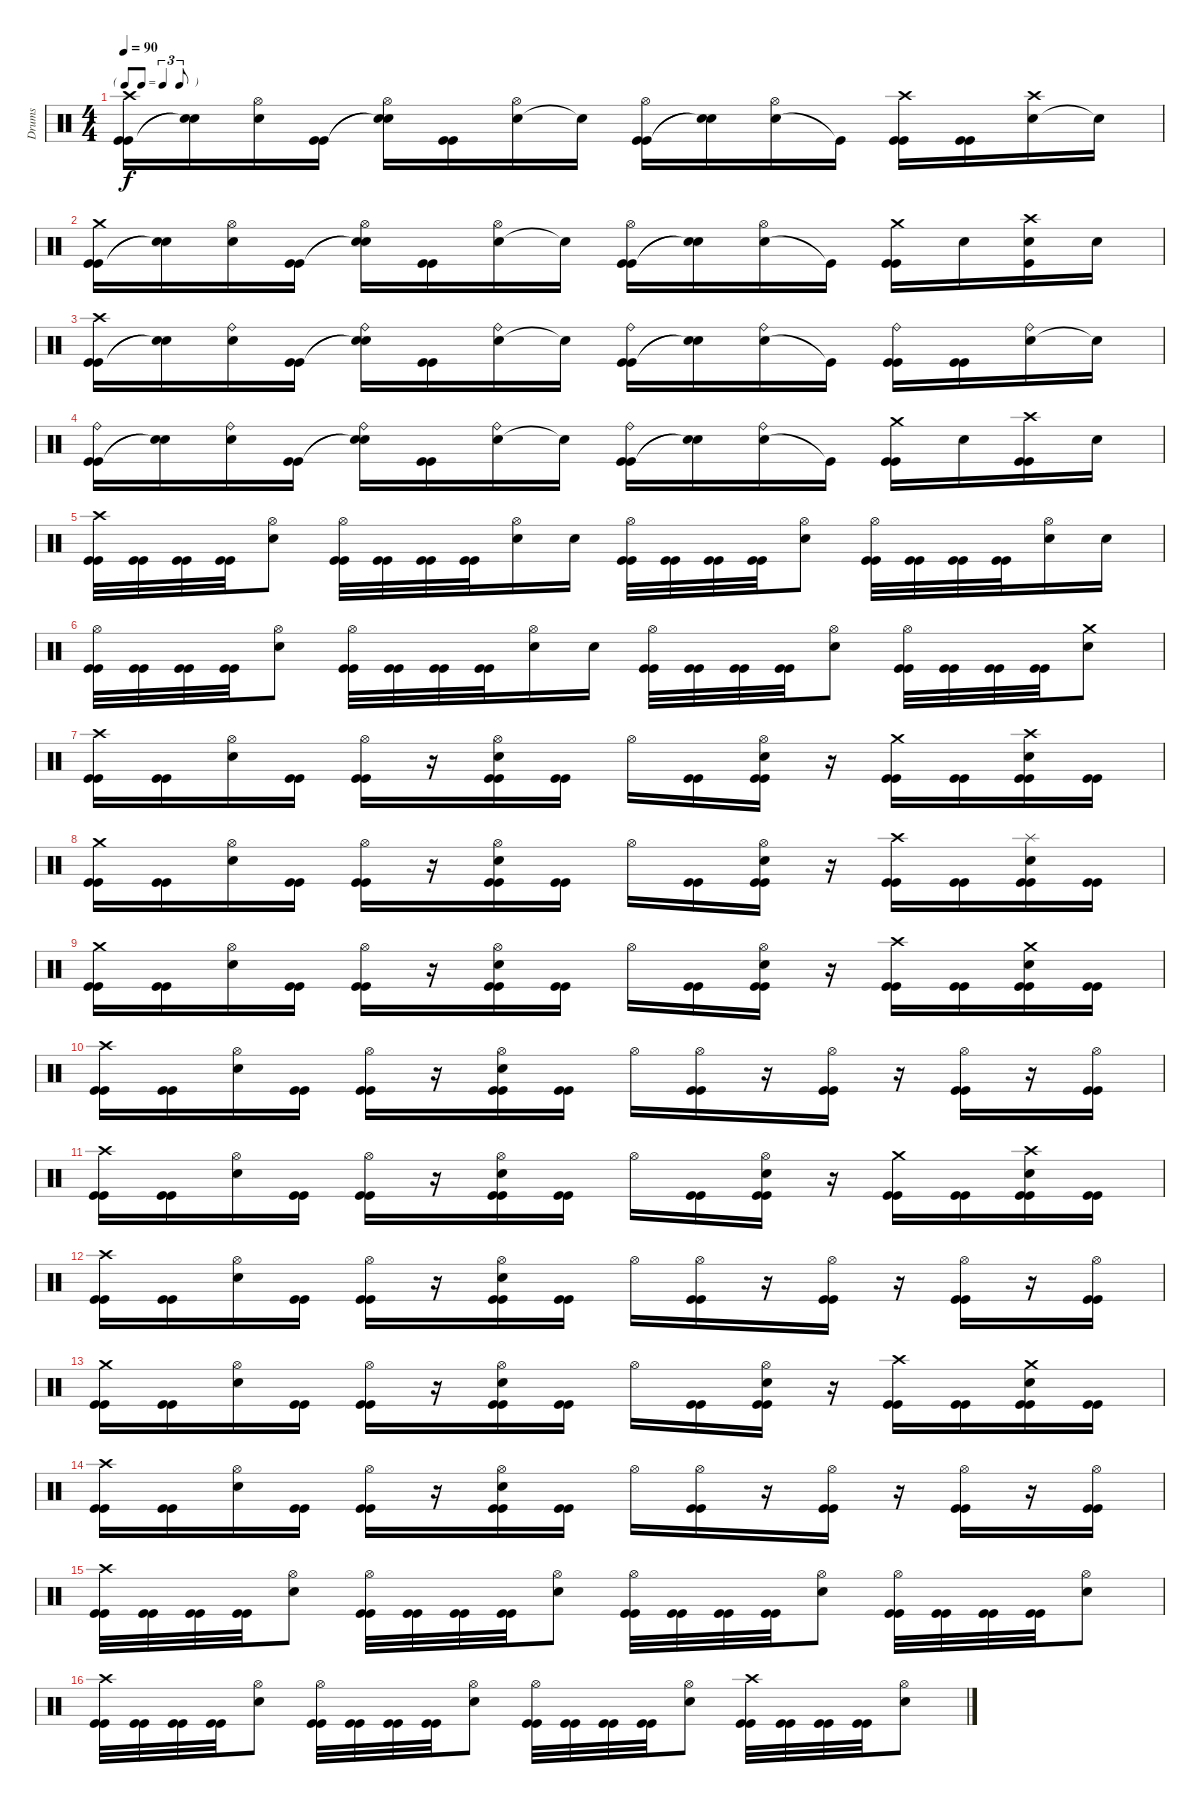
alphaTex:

\track ("Drums" "Drums") {instrument percussion}
\staff {score}
\articulation defaults
\ts (4 4)
\tf triplet8th
\tempo 90
\clef neutral
\ks c
("Kick (hit)" "Kick (hit)" "Crash high (hit)").16{dy f} ("Snare (hit) 2"{t} "Snare (hit)"{t}).16 ("Snare (hit) 2" "Hi-Hat (open)").16 ("Kick (hit)" "Kick (hit)").16 ("Snare (hit)"{t} "Snare (hit) 2"{t} "Hi-Hat (open)").16 ("Kick (hit)" "Kick (hit)").16 ("Snare (hit) 2" "Hi-Hat (open)").16 "Snare (hit)"{t}.16 ("Kick (hit)" "Kick (hit)" "Hi-Hat (open)").16 ("Snare (hit) 2"{t} "Snare (hit)"{t}).16 ("Snare (hit) 2" "Hi-Hat (open)").16 "Kick (hit)"{t}.16 ("Kick (hit)" "Kick (hit)" "Crash high (hit)").16 ("Kick (hit)" "Kick (hit)").16 ("Snare (hit) 2" "Crash high (hit)").16 "Snare (hit)"{t}.16 |
("Kick (hit)" "Kick (hit)" "Crash medium (hit)").16 ("Snare (hit) 2"{t} "Snare (hit)"{t}).16 ("Snare (hit) 2" "Hi-Hat (open)").16 ("Kick (hit)" "Kick (hit)").16 ("Snare (hit)"{t} "Snare (hit) 2"{t} "Hi-Hat (open)").16 ("Kick (hit)" "Kick (hit)").16 ("Snare (hit) 2" "Hi-Hat (open)").16 "Snare (hit)"{t}.16 ("Kick (hit)" "Kick (hit)" "Hi-Hat (open)").16 ("Snare (hit) 2"{t} "Snare (hit)"{t}).16 ("Snare (hit) 2" "Hi-Hat (open)").16 "Kick (hit)"{t}.16 ("Kick (hit)" "Kick (hit)" "Crash medium (hit)").16 "Snare (hit) 2".16 ("Kick (hit)" "Snare (hit) 2" "Crash high (hit)").16 "Snare (hit) 2".16 |
("Kick (hit)" "Kick (hit)" "Crash high (hit)").16 ("Snare (hit) 2"{t} "Snare (hit)"{t}).16 ("Snare (hit) 2" "Ride (bell)").16 ("Kick (hit)" "Kick (hit)").16 ("Snare (hit)"{t} "Snare (hit) 2"{t} "Ride (bell)").16 ("Kick (hit)" "Kick (hit)").16 ("Snare (hit) 2" "Ride (bell)").16 "Snare (hit)"{t}.16 ("Kick (hit)" "Kick (hit)" "Ride (bell)").16 ("Snare (hit) 2"{t} "Snare (hit)"{t}).16 ("Snare (hit) 2" "Ride (bell)").16 "Kick (hit)"{t}.16 ("Kick (hit)" "Kick (hit)" "Ride (bell)").16 ("Kick (hit)" "Kick (hit)").16 ("Snare (hit) 2" "Ride (bell)").16 "Snare (hit)"{t}.16 |
("Kick (hit)" "Kick (hit)" "Ride (bell)").16 ("Snare (hit) 2"{t} "Snare (hit)"{t}).16 ("Snare (hit) 2" "Ride (bell)").16 ("Kick (hit)" "Kick (hit)").16 ("Snare (hit)"{t} "Snare (hit) 2"{t} "Ride (bell)").16 ("Kick (hit)" "Kick (hit)").16 ("Snare (hit) 2" "Ride (bell)").16 "Snare (hit)"{t}.16 ("Kick (hit)" "Kick (hit)" "Ride (bell)").16 ("Snare (hit) 2"{t} "Snare (hit)"{t}).16 ("Snare (hit) 2" "Ride (bell)").16 "Kick (hit)"{t}.16 ("Kick (hit)" "Kick (hit)" "Crash medium (hit)").16 "Snare (hit) 2".16 ("Kick (hit)" "Kick (hit)" "Crash high (hit)").16 "Snare (hit) 2".16 |
("Kick (hit)" "Kick (hit)" "Crash high (hit)").32 ("Kick (hit)" "Kick (hit)").32 ("Kick (hit)" "Kick (hit)").32 ("Kick (hit)" "Kick (hit)").32 ("Snare (hit) 2" "Hi-Hat (open)").8 ("Kick (hit)" "Kick (hit)" "Hi-Hat (open)").32 ("Kick (hit)" "Kick (hit)").32 ("Kick (hit)" "Kick (hit)").32 ("Kick (hit)" "Kick (hit)").32 ("Snare (hit) 2" "Hi-Hat (open)").16 "Snare (hit) 2".16 ("Kick (hit)" "Kick (hit)" "Hi-Hat (open)").32 ("Kick (hit)" "Kick (hit)").32 ("Kick (hit)" "Kick (hit)").32 ("Kick (hit)" "Kick (hit)").32 ("Snare (hit) 2" "Hi-Hat (open)").8 ("Kick (hit)" "Kick (hit)" "Hi-Hat (open)").32 ("Kick (hit)" "Kick (hit)").32 ("Kick (hit)" "Kick (hit)").32 ("Kick (hit)" "Kick (hit)").32 ("Snare (hit) 2" "Hi-Hat (open)").16 "Snare (hit) 2".16 |
("Kick (hit)" "Kick (hit)" "Hi-Hat (open)").32 ("Kick (hit)" "Kick (hit)").32 ("Kick (hit)" "Kick (hit)").32 ("Kick (hit)" "Kick (hit)").32 ("Snare (hit) 2" "Hi-Hat (open)").8 ("Kick (hit)" "Kick (hit)" "Hi-Hat (open)").32 ("Kick (hit)" "Kick (hit)").32 ("Kick (hit)" "Kick (hit)").32 ("Kick (hit)" "Kick (hit)").32 ("Snare (hit) 2" "Hi-Hat (open)").16 "Snare (hit) 2".16 ("Kick (hit)" "Kick (hit)" "Hi-Hat (open)").32 ("Kick (hit)" "Kick (hit)").32 ("Kick (hit)" "Kick (hit)").32 ("Kick (hit)" "Kick (hit)").32 ("Snare (hit) 2" "Hi-Hat (open)").8 ("Kick (hit)" "Kick (hit)" "Hi-Hat (open)").32 ("Kick (hit)" "Kick (hit)").32 ("Kick (hit)" "Kick (hit)").32 ("Kick (hit)" "Kick (hit)").32 ("Snare (hit) 2" "Crash medium (hit)").8 |
("Kick (hit)" "Kick (hit)" "Crash high (hit)").16 ("Kick (hit)" "Kick (hit)").16 ("Snare (hit) 2" "Hi-Hat (open)").16 ("Kick (hit)" "Kick (hit)").16 ("Kick (hit)" "Kick (hit)" "Hi-Hat (open)").16 r.16 ("Kick (hit)" "Kick (hit)" "Snare (hit) 2" "Hi-Hat (open)").16 ("Kick (hit)" "Kick (hit)").16 "Hi-Hat (open)".16 ("Kick (hit)" "Kick (hit)").16 ("Kick (hit)" "Kick (hit)" "Snare (hit) 2" "Hi-Hat (open)").16 r.16 ("Kick (hit)" "Kick (hit)" "Crash medium (hit)").16 ("Kick (hit)" "Kick (hit)").16 ("Kick (hit)" "Kick (hit)" "Snare (hit) 2" "Crash high (hit)").16 ("Kick (hit)" "Kick (hit)").16 |
("Kick (hit)" "Kick (hit)" "Crash medium (hit)").16 ("Kick (hit)" "Kick (hit)").16 ("Snare (hit) 2" "Hi-Hat (open)").16 ("Kick (hit)" "Kick (hit)").16 ("Kick (hit)" "Kick (hit)" "Hi-Hat (open)").16 r.16 ("Kick (hit)" "Kick (hit)" "Snare (hit) 2" "Hi-Hat (open)").16 ("Kick (hit)" "Kick (hit)").16 "Hi-Hat (open)".16 ("Kick (hit)" "Kick (hit)").16 ("Kick (hit)" "Kick (hit)" "Snare (hit) 2" "Hi-Hat (open)").16 r.16 ("Kick (hit)" "Kick (hit)" "Crash high (hit)").16 ("Kick (hit)" "Kick (hit)").16 ("Kick (hit)" "Kick (hit)" "Snare (hit) 2" "Splash (hit)").16 ("Kick (hit)" "Kick (hit)").16 |
("Kick (hit)" "Kick (hit)" "Crash medium (hit)").16 ("Kick (hit)" "Kick (hit)").16 ("Snare (hit) 2" "Hi-Hat (open)").16 ("Kick (hit)" "Kick (hit)").16 ("Kick (hit)" "Kick (hit)" "Hi-Hat (open)").16 r.16 ("Kick (hit)" "Kick (hit)" "Snare (hit) 2" "Hi-Hat (open)").16 ("Kick (hit)" "Kick (hit)").16 "Hi-Hat (open)".16 ("Kick (hit)" "Kick (hit)").16 ("Kick (hit)" "Kick (hit)" "Snare (hit) 2" "Hi-Hat (open)").16 r.16 ("Kick (hit)" "Kick (hit)" "Crash high (hit)").16 ("Kick (hit)" "Kick (hit)").16 ("Kick (hit)" "Kick (hit)" "Snare (hit) 2" "Crash medium (hit)").16 ("Kick (hit)" "Kick (hit)").16 |
("Kick (hit)" "Kick (hit)" "Crash high (hit)").16 ("Kick (hit)" "Kick (hit)").16 ("Snare (hit) 2" "Hi-Hat (open)").16 ("Kick (hit)" "Kick (hit)").16 ("Kick (hit)" "Kick (hit)" "Hi-Hat (open)").16 r.16 ("Kick (hit)" "Kick (hit)" "Snare (hit) 2" "Hi-Hat (open)").16 ("Kick (hit)" "Kick (hit)").16 "Hi-Hat (open)".16 ("Kick (hit)" "Hi-Hat (open)" "Kick (hit)").16 r.16 ("Kick (hit)" "Hi-Hat (open)" "Kick (hit)").16 r.16 ("Kick (hit)" "Hi-Hat (open)" "Kick (hit)").16 r.16 ("Kick (hit)" "Hi-Hat (open)" "Kick (hit)").16 |
("Kick (hit)" "Kick (hit)" "Crash high (hit)").16 ("Kick (hit)" "Kick (hit)").16 ("Snare (hit) 2" "Hi-Hat (open)").16 ("Kick (hit)" "Kick (hit)").16 ("Kick (hit)" "Kick (hit)" "Hi-Hat (open)").16 r.16 ("Kick (hit)" "Kick (hit)" "Snare (hit) 2" "Hi-Hat (open)").16 ("Kick (hit)" "Kick (hit)").16 "Hi-Hat (open)".16 ("Kick (hit)" "Kick (hit)").16 ("Kick (hit)" "Kick (hit)" "Snare (hit) 2" "Hi-Hat (open)").16 r.16 ("Kick (hit)" "Kick (hit)" "Crash medium (hit)").16 ("Kick (hit)" "Kick (hit)").16 ("Kick (hit)" "Kick (hit)" "Snare (hit) 2" "Crash high (hit)").16 ("Kick (hit)" "Kick (hit)").16 |
("Kick (hit)" "Kick (hit)" "Crash high (hit)").16 ("Kick (hit)" "Kick (hit)").16 ("Snare (hit) 2" "Hi-Hat (open)").16 ("Kick (hit)" "Kick (hit)").16 ("Kick (hit)" "Kick (hit)" "Hi-Hat (open)").16 r.16 ("Kick (hit)" "Kick (hit)" "Snare (hit) 2" "Hi-Hat (open)").16 ("Kick (hit)" "Kick (hit)").16 "Hi-Hat (open)".16 ("Kick (hit)" "Hi-Hat (open)" "Kick (hit)").16 r.16 ("Kick (hit)" "Hi-Hat (open)" "Kick (hit)").16 r.16 ("Kick (hit)" "Hi-Hat (open)" "Kick (hit)").16 r.16 ("Kick (hit)" "Hi-Hat (open)" "Kick (hit)").16 |
("Kick (hit)" "Kick (hit)" "Crash medium (hit)").16 ("Kick (hit)" "Kick (hit)").16 ("Snare (hit) 2" "Hi-Hat (open)").16 ("Kick (hit)" "Kick (hit)").16 ("Kick (hit)" "Kick (hit)" "Hi-Hat (open)").16 r.16 ("Kick (hit)" "Kick (hit)" "Snare (hit) 2" "Hi-Hat (open)").16 ("Kick (hit)" "Kick (hit)").16 "Hi-Hat (open)".16 ("Kick (hit)" "Kick (hit)").16 ("Kick (hit)" "Kick (hit)" "Snare (hit) 2" "Hi-Hat (open)").16 r.16 ("Kick (hit)" "Kick (hit)" "Crash high (hit)").16 ("Kick (hit)" "Kick (hit)").16 ("Kick (hit)" "Kick (hit)" "Snare (hit) 2" "Crash medium (hit)").16 ("Kick (hit)" "Kick (hit)").16 |
("Kick (hit)" "Kick (hit)" "Crash high (hit)").16 ("Kick (hit)" "Kick (hit)").16 ("Snare (hit) 2" "Hi-Hat (open)").16 ("Kick (hit)" "Kick (hit)").16 ("Kick (hit)" "Kick (hit)" "Hi-Hat (open)").16 r.16 ("Kick (hit)" "Kick (hit)" "Snare (hit) 2" "Hi-Hat (open)").16 ("Kick (hit)" "Kick (hit)").16 "Hi-Hat (open)".16 ("Kick (hit)" "Hi-Hat (open)" "Kick (hit)").16 r.16 ("Kick (hit)" "Hi-Hat (open)" "Kick (hit)").16 r.16 ("Kick (hit)" "Hi-Hat (open)" "Kick (hit)").16 r.16 ("Kick (hit)" "Hi-Hat (open)" "Kick (hit)").16 |
("Kick (hit)" "Kick (hit)" "Crash high (hit)").32 ("Kick (hit)" "Kick (hit)").32 ("Kick (hit)" "Kick (hit)").32 ("Kick (hit)" "Kick (hit)").32 ("Snare (hit) 2" "Hi-Hat (open)").8 ("Kick (hit)" "Kick (hit)" "Hi-Hat (open)").32 ("Kick (hit)" "Kick (hit)").32 ("Kick (hit)" "Kick (hit)").32 ("Kick (hit)" "Kick (hit)").32 ("Snare (hit) 2" "Hi-Hat (open)").8 ("Kick (hit)" "Kick (hit)" "Hi-Hat (open)").32 ("Kick (hit)" "Kick (hit)").32 ("Kick (hit)" "Kick (hit)").32 ("Kick (hit)" "Kick (hit)").32 ("Snare (hit) 2" "Hi-Hat (open)").8 ("Kick (hit)" "Kick (hit)" "Hi-Hat (open)").32 ("Kick (hit)" "Kick (hit)").32 ("Kick (hit)" "Kick (hit)").32 ("Kick (hit)" "Kick (hit)").32 ("Snare (hit) 2" "Hi-Hat (open)").8 |
("Kick (hit)" "Kick (hit)" "Crash high (hit)").32 ("Kick (hit)" "Kick (hit)").32 ("Kick (hit)" "Kick (hit)").32 ("Kick (hit)" "Kick (hit)").32 ("Snare (hit) 2" "Hi-Hat (open)").8 ("Kick (hit)" "Kick (hit)" "Hi-Hat (open)").32 ("Kick (hit)" "Kick (hit)").32 ("Kick (hit)" "Kick (hit)").32 ("Kick (hit)" "Kick (hit)").32 ("Snare (hit) 2" "Hi-Hat (open)").8 ("Kick (hit)" "Kick (hit)" "Hi-Hat (open)").32 ("Kick (hit)" "Kick (hit)").32 ("Kick (hit)" "Kick (hit)").32 ("Kick (hit)" "Kick (hit)").32 ("Snare (hit) 2" "Hi-Hat (open)").8 ("Kick (hit)" "Kick (hit)" "Crash high (hit)").32 ("Kick (hit)" "Kick (hit)").32 ("Kick (hit)" "Kick (hit)").32 ("Kick (hit)" "Kick (hit)").32 ("Snare (hit) 2" "Hi-Hat (open)").8
